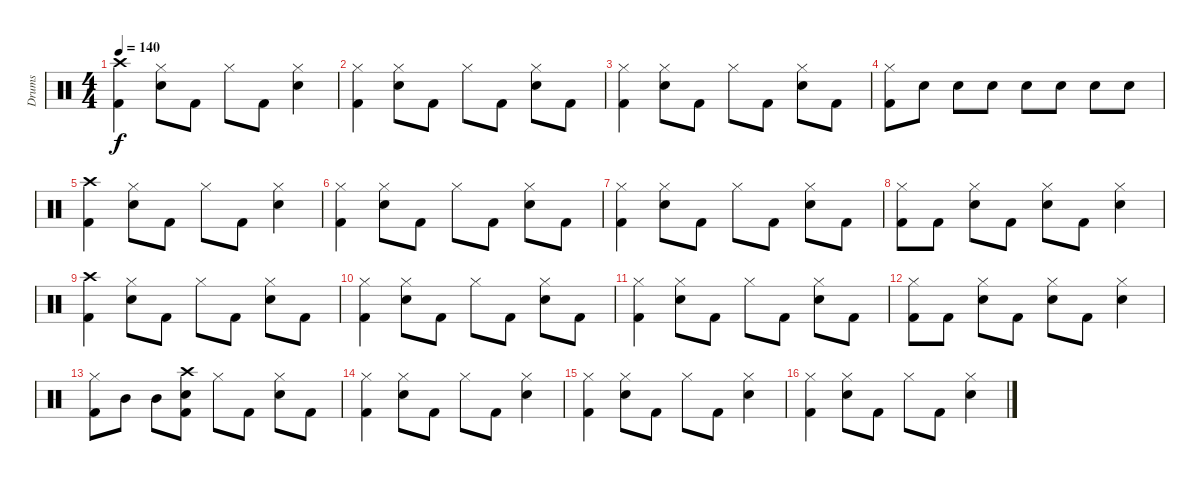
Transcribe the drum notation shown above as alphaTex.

\track ("Drums" "Drums") {instrument percussion}
\staff {score}
\articulation defaults
\ts (4 4)
\tempo 140
\clef neutral
\ks c
("Crash high (hit)" "Kick (hit) 2").4{dy f} ("Hi-Hat (closed)" "Snare (hit) 2").8 "Kick (hit) 2".8 "Hi-Hat (closed)".8 "Kick (hit) 2".8 ("Hi-Hat (closed)" "Snare (hit) 2").4 |
("Hi-Hat (closed)" "Kick (hit) 2").4 ("Hi-Hat (closed)" "Snare (hit) 2").8 "Kick (hit) 2".8 "Hi-Hat (closed)".8 "Kick (hit) 2".8 ("Hi-Hat (closed)" "Snare (hit) 2").8 "Kick (hit) 2".8 |
("Hi-Hat (closed)" "Kick (hit) 2").4 ("Hi-Hat (closed)" "Snare (hit) 2").8 "Kick (hit) 2".8 "Hi-Hat (closed)".8 "Kick (hit) 2".8 ("Hi-Hat (closed)" "Snare (hit) 2").8 "Kick (hit) 2".8 |
("Hi-Hat (closed)" "Kick (hit) 2").8 "Snare (hit) 2".8 "Snare (hit) 2".8 "Snare (hit) 2".8 "Snare (hit) 2".8 "Snare (hit) 2".8 "Snare (hit) 2".8 "Snare (hit) 2".8 |
("Crash high (hit)" "Kick (hit) 2").4 ("Hi-Hat (closed)" "Snare (hit) 2").8 "Kick (hit) 2".8 "Hi-Hat (closed)".8 "Kick (hit) 2".8 ("Hi-Hat (closed)" "Snare (hit) 2").4 |
("Hi-Hat (closed)" "Kick (hit) 2").4 ("Hi-Hat (closed)" "Snare (hit) 2").8 "Kick (hit) 2".8 "Hi-Hat (closed)".8 "Kick (hit) 2".8 ("Hi-Hat (closed)" "Snare (hit) 2").8 "Kick (hit) 2".8 |
("Hi-Hat (closed)" "Kick (hit) 2").4 ("Hi-Hat (closed)" "Snare (hit) 2").8 "Kick (hit) 2".8 "Hi-Hat (closed)".8 "Kick (hit) 2".8 ("Hi-Hat (closed)" "Snare (hit) 2").8 "Kick (hit) 2".8 |
("Hi-Hat (closed)" "Kick (hit) 2").8 "Kick (hit) 2".8 ("Hi-Hat (closed)" "Snare (hit) 2").8 "Kick (hit) 2".8 ("Hi-Hat (closed)" "Snare (hit) 2").8 "Kick (hit) 2".8 ("Hi-Hat (closed)" "Snare (hit) 2").4 |
("Crash high (hit)" "Kick (hit) 2").4 ("Hi-Hat (closed)" "Snare (hit) 2").8 "Kick (hit) 2".8 "Hi-Hat (closed)".8 "Kick (hit) 2".8 ("Hi-Hat (closed)" "Snare (hit) 2").8 "Kick (hit) 2".8 |
("Hi-Hat (closed)" "Kick (hit) 2").4 ("Hi-Hat (closed)" "Snare (hit) 2").8 "Kick (hit) 2".8 "Hi-Hat (closed)".8 "Kick (hit) 2".8 ("Hi-Hat (closed)" "Snare (hit) 2").8 "Kick (hit) 2".8 |
("Hi-Hat (closed)" "Kick (hit) 2").4 ("Hi-Hat (closed)" "Snare (hit) 2").8 "Kick (hit) 2".8 "Hi-Hat (closed)".8 "Kick (hit) 2".8 ("Hi-Hat (closed)" "Snare (hit) 2").8 "Kick (hit) 2".8 |
("Hi-Hat (closed)" "Kick (hit) 2").8 "Kick (hit) 2".8 ("Hi-Hat (closed)" "Snare (hit) 2").8 "Kick (hit) 2".8 ("Hi-Hat (closed)" "Snare (hit) 2").8 "Kick (hit) 2".8 ("Hi-Hat (closed)" "Snare (hit) 2").4 |
("Hi-Hat (closed)" "Kick (hit) 2").8 "Mid Tom (hit)".8 "Mid Tom (hit)".8 ("Crash high (hit)" "Snare (hit) 2" "Kick (hit) 2").8 "Hi-Hat (closed)".8 "Kick (hit) 2".8 ("Hi-Hat (closed)" "Snare (hit) 2").8 "Kick (hit) 2".8 |
("Hi-Hat (closed)" "Kick (hit) 2").4 ("Hi-Hat (closed)" "Snare (hit) 2").8 "Kick (hit) 2".8 "Hi-Hat (closed)".8 "Kick (hit) 2".8 ("Hi-Hat (closed)" "Snare (hit) 2").4 |
("Hi-Hat (closed)" "Kick (hit) 2").4 ("Hi-Hat (closed)" "Snare (hit) 2").8 "Kick (hit) 2".8 "Hi-Hat (closed)".8 "Kick (hit) 2".8 ("Hi-Hat (closed)" "Snare (hit) 2").4 |
("Hi-Hat (closed)" "Kick (hit) 2").4 ("Hi-Hat (closed)" "Snare (hit) 2").8 "Kick (hit) 2".8 "Hi-Hat (closed)".8 "Kick (hit) 2".8 ("Hi-Hat (closed)" "Snare (hit) 2").4
